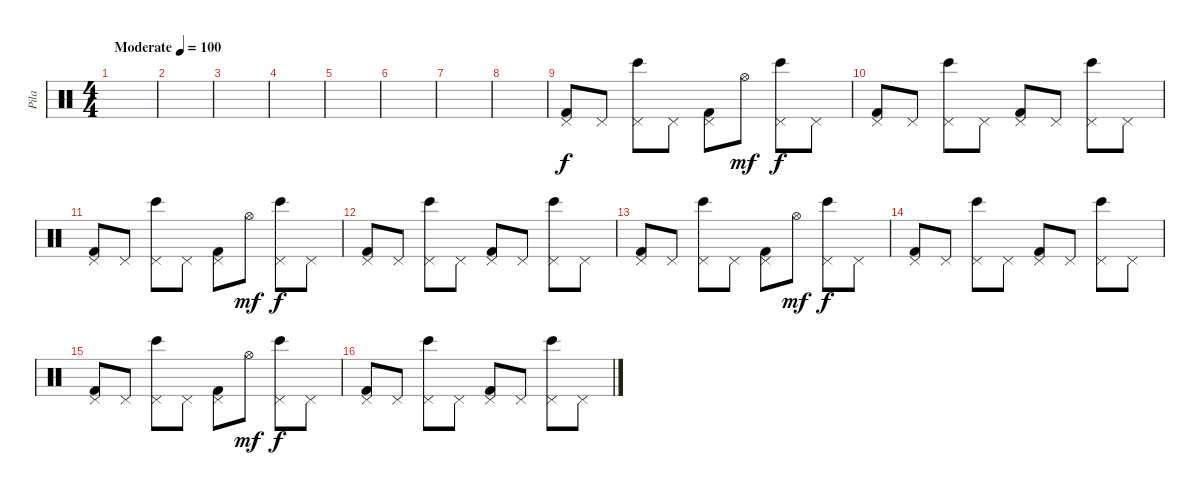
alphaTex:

\track ("Pila" "Pila") {instrument percussion}
\staff {score}
\articulation defaults
\ts (4 4)
\tempo (100 "Moderate")
\clef neutral
\ks c
|
|
|
|
|
|
|
|
("Pedal Hi-Hat (hit)" "Kick (hit) 2").8 "Pedal Hi-Hat (hit)".8 ("Pedal Hi-Hat (hit)" "Bongo High (hit)").8 "Pedal Hi-Hat (hit)".8 ("Pedal Hi-Hat (hit)" "Kick (hit) 2").8 "Hi-Hat (open)".8{dy mf} ("Pedal Hi-Hat (hit)" "Bongo High (hit)").8{dy f} "Pedal Hi-Hat (hit)".8 |
("Pedal Hi-Hat (hit)" "Kick (hit) 2").8 "Pedal Hi-Hat (hit)".8 ("Pedal Hi-Hat (hit)" "Bongo High (hit)").8 "Pedal Hi-Hat (hit)".8 ("Pedal Hi-Hat (hit)" "Kick (hit) 2").8 "Pedal Hi-Hat (hit)".8 ("Pedal Hi-Hat (hit)" "Bongo High (hit)").8 "Pedal Hi-Hat (hit)".8 |
("Pedal Hi-Hat (hit)" "Kick (hit) 2").8 "Pedal Hi-Hat (hit)".8 ("Pedal Hi-Hat (hit)" "Bongo High (hit)").8 "Pedal Hi-Hat (hit)".8 ("Pedal Hi-Hat (hit)" "Kick (hit) 2").8 "Hi-Hat (open)".8{dy mf} ("Pedal Hi-Hat (hit)" "Bongo High (hit)").8{dy f} "Pedal Hi-Hat (hit)".8 |
("Pedal Hi-Hat (hit)" "Kick (hit) 2").8 "Pedal Hi-Hat (hit)".8 ("Pedal Hi-Hat (hit)" "Bongo High (hit)").8 "Pedal Hi-Hat (hit)".8 ("Pedal Hi-Hat (hit)" "Kick (hit) 2").8 "Pedal Hi-Hat (hit)".8 ("Pedal Hi-Hat (hit)" "Bongo High (hit)").8 "Pedal Hi-Hat (hit)".8 |
("Pedal Hi-Hat (hit)" "Kick (hit) 2").8 "Pedal Hi-Hat (hit)".8 ("Pedal Hi-Hat (hit)" "Bongo High (hit)").8 "Pedal Hi-Hat (hit)".8 ("Pedal Hi-Hat (hit)" "Kick (hit) 2").8 "Hi-Hat (open)".8{dy mf} ("Pedal Hi-Hat (hit)" "Bongo High (hit)").8{dy f} "Pedal Hi-Hat (hit)".8 |
("Pedal Hi-Hat (hit)" "Kick (hit) 2").8 "Pedal Hi-Hat (hit)".8 ("Pedal Hi-Hat (hit)" "Bongo High (hit)").8 "Pedal Hi-Hat (hit)".8 ("Pedal Hi-Hat (hit)" "Kick (hit) 2").8 "Pedal Hi-Hat (hit)".8 ("Pedal Hi-Hat (hit)" "Bongo High (hit)").8 "Pedal Hi-Hat (hit)".8 |
("Pedal Hi-Hat (hit)" "Kick (hit) 2").8 "Pedal Hi-Hat (hit)".8 ("Pedal Hi-Hat (hit)" "Bongo High (hit)").8 "Pedal Hi-Hat (hit)".8 ("Pedal Hi-Hat (hit)" "Kick (hit) 2").8 "Hi-Hat (open)".8{dy mf} ("Pedal Hi-Hat (hit)" "Bongo High (hit)").8{dy f} "Pedal Hi-Hat (hit)".8 |
("Pedal Hi-Hat (hit)" "Kick (hit) 2").8 "Pedal Hi-Hat (hit)".8 ("Pedal Hi-Hat (hit)" "Bongo High (hit)").8 "Pedal Hi-Hat (hit)".8 ("Pedal Hi-Hat (hit)" "Kick (hit) 2").8 "Pedal Hi-Hat (hit)".8 ("Pedal Hi-Hat (hit)" "Bongo High (hit)").8 "Pedal Hi-Hat (hit)".8
